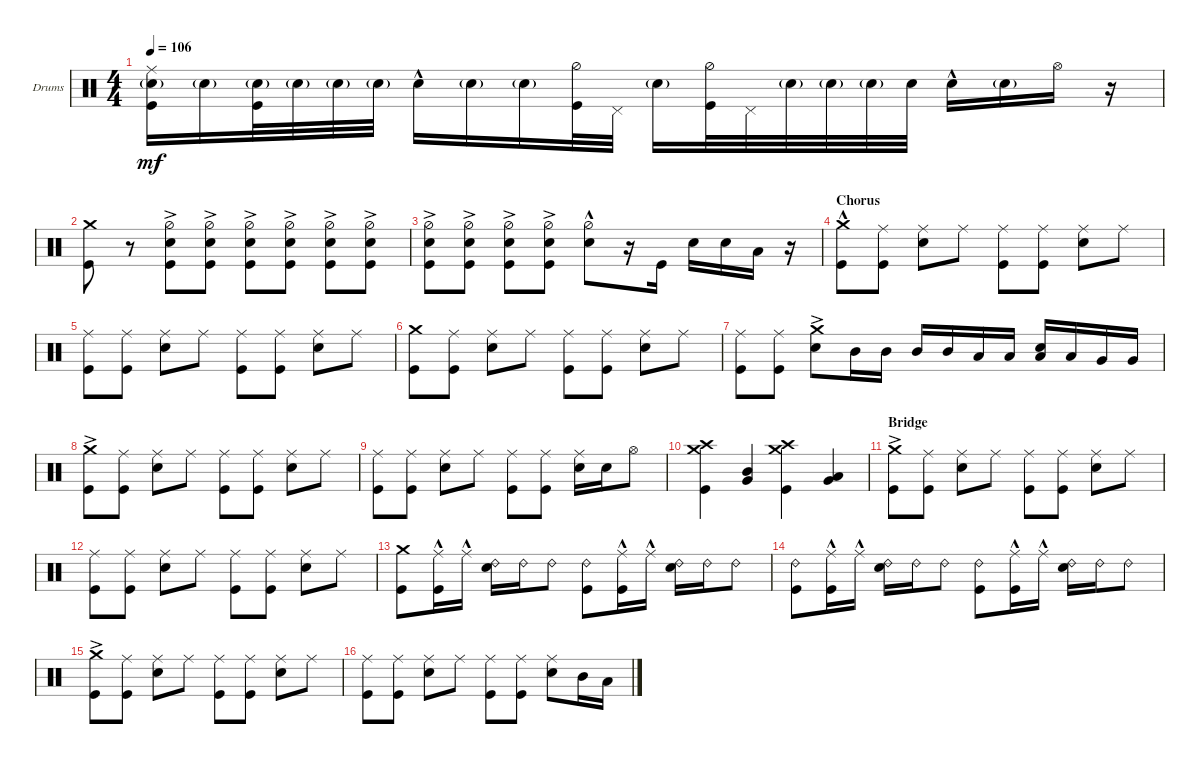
\defaultSystemsLayout 4
\bracketExtendMode groupsimilarinstruments
\firstSystemTrackNameOrientation horizontal
\otherSystemsTrackNameOrientation horizontal
\track ("Drumkit" "Drums") {mute instrument percussion}
\staff {score}
\articulation defaults
\ts (4 4)
\tempo 106
\clef neutral
\scale
0.333333
\ks c
("Kick (hit)" "Snare (hit) 2"{g} "Ride (middle)").16{dy mf} "Snare (hit) 2"{g}.16 ("Kick (hit)" "Snare (hit) 2"{g}).32 "Snare (hit) 2"{g}.32 "Snare (hit) 2"{g}.32 "Snare (hit) 2"{g}.32 "Snare (hit) 2"{hac}.16 "Snare (hit) 2"{g}.16 "Snare (hit) 2"{g}.16 ("Hi-Hat (half)" "Kick (hit)").32 "Pedal Hi-Hat (hit)".32 "Snare (hit) 2"{g}.16 ("Hi-Hat (half)" "Kick (hit)").32 "Pedal Hi-Hat (hit)".32 "Snare (hit) 2"{g}.32 "Snare (hit) 2"{g}.32 "Snare (hit) 2"{g}.32 "Snare (hit) 2".32 "Snare (hit) 2"{hac}.16 "Snare (hit) 2"{g}.16 "Hi-Hat (open)".16 r.16 |
\scale
0.333333 ("Kick (hit)" "Crash medium (hit)").8 r.8 ("Kick (hit)" "Snare (hit) 2"{ac} "Hi-Hat (half)").8 ("Kick (hit)" "Snare (hit) 2"{ac} "Hi-Hat (half)").8 ("Kick (hit)" "Snare (hit) 2"{ac} "Hi-Hat (half)").8 ("Kick (hit)" "Snare (hit) 2"{ac} "Hi-Hat (half)").8 ("Kick (hit)" "Snare (hit) 2"{ac} "Hi-Hat (half)").8 ("Kick (hit)" "Snare (hit) 2"{ac} "Hi-Hat (half)").8 |
\scale
0.333333 ("Kick (hit)" "Snare (hit) 2"{ac} "Hi-Hat (half)").8 ("Kick (hit)" "Snare (hit) 2"{ac} "Hi-Hat (half)").8 ("Kick (hit)" "Snare (hit) 2"{ac} "Hi-Hat (half)").8 ("Kick (hit)" "Snare (hit) 2"{ac} "Hi-Hat (half)").8 ("Snare (hit) 2"{hac} "Hi-Hat (half)"{hac}).8 r.16 "Kick (hit)".16 "Snare (hit) 2".16 "Snare (hit) 2".16 "Low Tom (hit)".16 r.16 |
\section ("" "Chorus")
\scale
0.333333 ("Kick (hit)" "Crash medium (hit)"{hac}).8 ("Kick (hit)" "Ride (middle)").8 ("Snare (hit) 2" "Ride (middle)").8 "Ride (middle)".8 ("Kick (hit)" "Ride (middle)").8 ("Kick (hit)" "Ride (middle)").8 ("Snare (hit) 2" "Ride (middle)").8 "Ride (middle)".8 |
\scale
0.333333 ("Kick (hit)" "Ride (middle)").8 ("Kick (hit)" "Ride (middle)").8 ("Snare (hit) 2" "Ride (middle)").8 "Ride (middle)".8 ("Kick (hit)" "Ride (middle)").8 ("Kick (hit)" "Ride (middle)").8 ("Snare (hit) 2" "Ride (middle)").8 "Ride (middle)".8 |
\scale
0.333333 ("Kick (hit)" "Crash medium (hit)").8 ("Kick (hit)" "Ride (middle)").8 ("Snare (hit) 2" "Ride (middle)").8 "Ride (middle)".8 ("Kick (hit)" "Ride (middle)").8 ("Kick (hit)" "Ride (middle)").8 ("Snare (hit) 2" "Ride (middle)").8 "Ride (middle)".8 |
\scale
0.333333 ("Kick (hit)" "Ride (middle)").8 ("Kick (hit)" "Ride (middle)").8 ("Snare (hit) 2" "Crash medium (hit)"{ac}).8 "Mid Tom (hit)".16 "Mid Tom (hit)".16 "Mid Tom (hit)".16 "Mid Tom (hit)".16 "Low Tom (hit)".16 "Low Tom (hit)".16 ("Low Tom (hit)" "Snare (hit) 2").16 "Low Tom (hit)".16 "Very Low Tom (hit)".16 "Very Low Tom (hit)".16 |
\scale
0.333333 ("Kick (hit)" "Crash medium (hit)"{ac}).8 ("Kick (hit)" "Ride (middle)").8 ("Snare (hit) 2" "Ride (middle)").8 "Ride (middle)".8 ("Kick (hit)" "Ride (middle)").8 ("Kick (hit)" "Ride (middle)").8 ("Snare (hit) 2" "Ride (middle)").8 "Ride (middle)".8 |
\scale
0.333333 ("Kick (hit)" "Ride (middle)").8 ("Kick (hit)" "Ride (middle)").8 ("Snare (hit) 2" "Ride (middle)").8 "Ride (middle)".8 ("Kick (hit)" "Ride (middle)").8 ("Kick (hit)" "Ride (middle)").8 ("Snare (hit) 2" "Ride (middle)").16 "Snare (hit) 2".16 "Hi-Hat (open)".8 |
\scale
0.333333 ("Kick (hit)" "Crash medium (hit)" "Crash high (hit)").4 ("Very Low Tom (hit)" "Mid Tom (hit)").4 ("Kick (hit)" "Crash medium (hit)" "Crash high (hit)").4 ("Very Low Tom (hit)" "Low Tom (hit)").4 |
\section ("" "Bridge")
\scale
0.333333 ("Kick (hit)" "Crash medium (hit)"{ac}).8 ("Kick (hit)" "Ride (middle)").8 ("Snare (hit) 2" "Ride (middle)").8 "Ride (middle)".8 ("Kick (hit)" "Ride (middle)").8 ("Kick (hit)" "Ride (middle)").8 ("Snare (hit) 2" "Ride (middle)").8 "Ride (middle)".8 |
\scale
0.333333 ("Kick (hit)" "Ride (middle)").8 ("Kick (hit)" "Ride (middle)").8 ("Snare (hit) 2" "Ride (middle)").8 "Ride (middle)".8 ("Kick (hit)" "Ride (middle)").8 ("Kick (hit)" "Ride (middle)").8 ("Snare (hit) 2" "Ride (middle)").8 "Ride (middle)".8 |
\scale
0.333333 ("Kick (hit)" "Crash medium (hit)").8 ("Kick (hit)" "Ride (middle)"{hac}).16 "Ride (middle)"{hac}.16 ("Snare (hit) 2" "Ride (bell) 2").16 "Ride (bell) 2".16 "Ride (bell) 2".8 ("Kick (hit)" "Ride (bell) 2").8 ("Kick (hit)" "Ride (middle)"{hac}).16 "Ride (middle)"{hac}.16 ("Snare (hit) 2" "Ride (bell) 2").16 "Ride (bell) 2".16 "Ride (bell) 2".8 |
\scale
0.333333 ("Kick (hit)" "Ride (bell) 2").8 ("Kick (hit)" "Ride (middle)"{hac}).16 "Ride (middle)"{hac}.16 ("Snare (hit) 2" "Ride (bell) 2").16 "Ride (bell) 2".16 "Ride (bell) 2".8 ("Kick (hit)" "Ride (bell) 2").8 ("Kick (hit)" "Ride (middle)"{hac}).16 "Ride (middle)"{hac}.16 ("Snare (hit) 2" "Ride (bell) 2").16 "Ride (bell) 2".16 "Ride (bell) 2".8 |
\scale
0.333333 ("Kick (hit)" "Crash medium (hit)"{ac}).8 ("Kick (hit)" "Ride (middle)").8 ("Snare (hit) 2" "Ride (middle)").8 "Ride (middle)".8 ("Kick (hit)" "Ride (middle)").8 ("Kick (hit)" "Ride (middle)").8 ("Snare (hit) 2" "Ride (middle)").8 "Ride (middle)".8 |
\scale
0.333333 ("Kick (hit)" "Ride (middle)").8 ("Kick (hit)" "Ride (middle)").8 ("Snare (hit) 2" "Ride (middle)").8 "Ride (middle)".8 ("Kick (hit)" "Ride (middle)").8 ("Kick (hit)" "Ride (middle)").8 ("Snare (hit) 2" "Ride (middle)").8 "Mid Tom (hit)".16 "Low Tom (hit)".16
